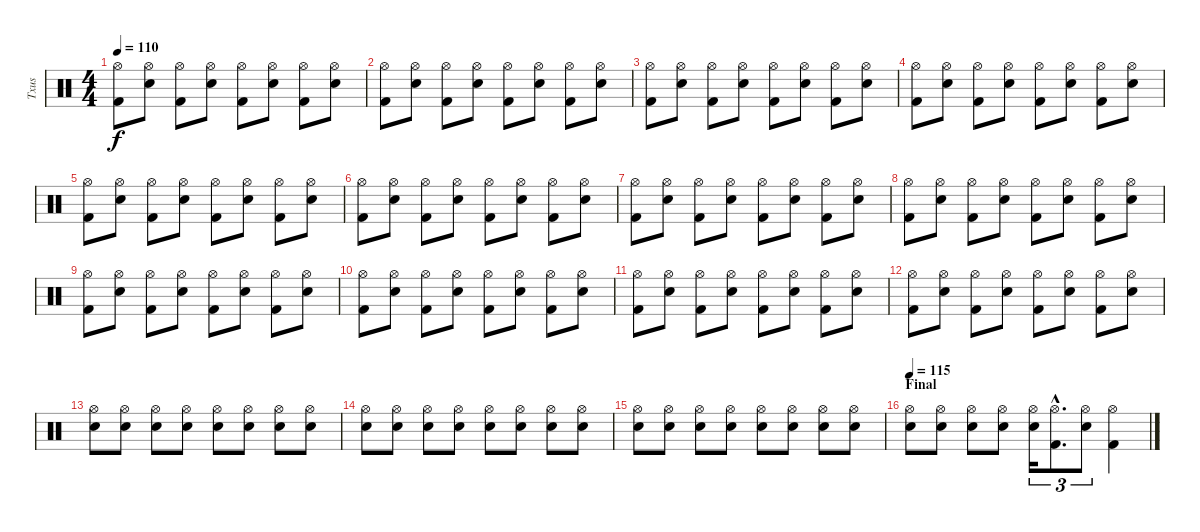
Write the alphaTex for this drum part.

\track ("Txus" "Txus") {instrument percussion}
\staff {score}
\articulation defaults
\ts (4 4)
\tempo 110
\clef neutral
\ks c
("Hi-Hat (open)" "Kick (hit) 2").8{dy f} ("Hi-Hat (open)" "Snare (hit) 2").8 ("Hi-Hat (open)" "Kick (hit) 2").8 ("Hi-Hat (open)" "Snare (hit) 2").8 ("Hi-Hat (open)" "Kick (hit) 2").8 ("Hi-Hat (open)" "Snare (hit) 2").8 ("Hi-Hat (open)" "Kick (hit) 2").8 ("Hi-Hat (open)" "Snare (hit) 2").8 |
("Hi-Hat (open)" "Kick (hit) 2").8 ("Hi-Hat (open)" "Snare (hit) 2").8 ("Hi-Hat (open)" "Kick (hit) 2").8 ("Hi-Hat (open)" "Snare (hit) 2").8 ("Hi-Hat (open)" "Kick (hit) 2").8 ("Hi-Hat (open)" "Snare (hit) 2").8 ("Hi-Hat (open)" "Kick (hit) 2").8 ("Hi-Hat (open)" "Snare (hit) 2").8 |
("Hi-Hat (open)" "Kick (hit) 2").8 ("Hi-Hat (open)" "Snare (hit) 2").8 ("Hi-Hat (open)" "Kick (hit) 2").8 ("Hi-Hat (open)" "Snare (hit) 2").8 ("Hi-Hat (open)" "Kick (hit) 2").8 ("Hi-Hat (open)" "Snare (hit) 2").8 ("Hi-Hat (open)" "Kick (hit) 2").8 ("Hi-Hat (open)" "Snare (hit) 2").8 |
("Hi-Hat (open)" "Kick (hit) 2").8 ("Hi-Hat (open)" "Snare (hit) 2").8 ("Hi-Hat (open)" "Kick (hit) 2").8 ("Hi-Hat (open)" "Snare (hit) 2").8 ("Hi-Hat (open)" "Kick (hit) 2").8 ("Hi-Hat (open)" "Snare (hit) 2").8 ("Hi-Hat (open)" "Kick (hit) 2").8 ("Hi-Hat (open)" "Snare (hit) 2").8 |
("Hi-Hat (open)" "Kick (hit) 2").8 ("Hi-Hat (open)" "Snare (hit) 2").8 ("Hi-Hat (open)" "Kick (hit) 2").8 ("Hi-Hat (open)" "Snare (hit) 2").8 ("Hi-Hat (open)" "Kick (hit) 2").8 ("Hi-Hat (open)" "Snare (hit) 2").8 ("Hi-Hat (open)" "Kick (hit) 2").8 ("Hi-Hat (open)" "Snare (hit) 2").8 |
("Hi-Hat (open)" "Kick (hit) 2").8 ("Hi-Hat (open)" "Snare (hit) 2").8 ("Hi-Hat (open)" "Kick (hit) 2").8 ("Hi-Hat (open)" "Snare (hit) 2").8 ("Hi-Hat (open)" "Kick (hit) 2").8 ("Hi-Hat (open)" "Snare (hit) 2").8 ("Hi-Hat (open)" "Kick (hit) 2").8 ("Hi-Hat (open)" "Snare (hit) 2").8 |
("Hi-Hat (open)" "Kick (hit) 2").8 ("Hi-Hat (open)" "Snare (hit) 2").8 ("Hi-Hat (open)" "Kick (hit) 2").8 ("Hi-Hat (open)" "Snare (hit) 2").8 ("Hi-Hat (open)" "Kick (hit) 2").8 ("Hi-Hat (open)" "Snare (hit) 2").8 ("Hi-Hat (open)" "Kick (hit) 2").8 ("Hi-Hat (open)" "Snare (hit) 2").8 |
("Hi-Hat (open)" "Kick (hit) 2").8 ("Hi-Hat (open)" "Snare (hit) 2").8 ("Hi-Hat (open)" "Kick (hit) 2").8 ("Hi-Hat (open)" "Snare (hit) 2").8 ("Hi-Hat (open)" "Kick (hit) 2").8 ("Hi-Hat (open)" "Snare (hit) 2").8 ("Hi-Hat (open)" "Kick (hit) 2").8 ("Hi-Hat (open)" "Snare (hit) 2").8 |
("Hi-Hat (open)" "Kick (hit) 2").8 ("Hi-Hat (open)" "Snare (hit) 2").8 ("Hi-Hat (open)" "Kick (hit) 2").8 ("Hi-Hat (open)" "Snare (hit) 2").8 ("Hi-Hat (open)" "Kick (hit) 2").8 ("Hi-Hat (open)" "Snare (hit) 2").8 ("Hi-Hat (open)" "Kick (hit) 2").8 ("Hi-Hat (open)" "Snare (hit) 2").8 |
("Hi-Hat (open)" "Kick (hit) 2").8 ("Hi-Hat (open)" "Snare (hit) 2").8 ("Hi-Hat (open)" "Kick (hit) 2").8 ("Hi-Hat (open)" "Snare (hit) 2").8 ("Hi-Hat (open)" "Kick (hit) 2").8 ("Hi-Hat (open)" "Snare (hit) 2").8 ("Hi-Hat (open)" "Kick (hit) 2").8 ("Hi-Hat (open)" "Snare (hit) 2").8 |
("Hi-Hat (open)" "Kick (hit) 2").8 ("Hi-Hat (open)" "Snare (hit) 2").8 ("Hi-Hat (open)" "Kick (hit) 2").8 ("Hi-Hat (open)" "Snare (hit) 2").8 ("Hi-Hat (open)" "Kick (hit) 2").8 ("Hi-Hat (open)" "Snare (hit) 2").8 ("Hi-Hat (open)" "Kick (hit) 2").8 ("Hi-Hat (open)" "Snare (hit) 2").8 |
("Hi-Hat (open)" "Kick (hit) 2").8 ("Hi-Hat (open)" "Snare (hit) 2").8 ("Hi-Hat (open)" "Kick (hit) 2").8 ("Hi-Hat (open)" "Snare (hit) 2").8 ("Hi-Hat (open)" "Kick (hit) 2").8 ("Hi-Hat (open)" "Snare (hit) 2").8 ("Hi-Hat (open)" "Kick (hit) 2").8 ("Hi-Hat (open)" "Snare (hit) 2").8 |
("Hi-Hat (open)" "Snare (hit) 2").8 ("Hi-Hat (open)" "Snare (hit) 2").8 ("Hi-Hat (open)" "Snare (hit) 2").8 ("Hi-Hat (open)" "Snare (hit) 2").8 ("Hi-Hat (open)" "Snare (hit) 2").8 ("Hi-Hat (open)" "Snare (hit) 2").8 ("Hi-Hat (open)" "Snare (hit) 2").8 ("Hi-Hat (open)" "Snare (hit) 2").8 |
("Hi-Hat (open)" "Snare (hit) 2").8 ("Hi-Hat (open)" "Snare (hit) 2").8 ("Hi-Hat (open)" "Snare (hit) 2").8 ("Hi-Hat (open)" "Snare (hit) 2").8 ("Hi-Hat (open)" "Snare (hit) 2").8 ("Hi-Hat (open)" "Snare (hit) 2").8 ("Hi-Hat (open)" "Snare (hit) 2").8 ("Hi-Hat (open)" "Snare (hit) 2").8 |
("Hi-Hat (open)" "Snare (hit) 2").8 ("Hi-Hat (open)" "Snare (hit) 2").8 ("Hi-Hat (open)" "Snare (hit) 2").8 ("Hi-Hat (open)" "Snare (hit) 2").8 ("Hi-Hat (open)" "Snare (hit) 2").8 ("Hi-Hat (open)" "Snare (hit) 2").8 ("Hi-Hat (open)" "Snare (hit) 2").8 ("Hi-Hat (open)" "Snare (hit) 2").8 |
\section ("" "Final")
\tempo 115
("Hi-Hat (open)" "Snare (hit) 2").8 ("Hi-Hat (open)" "Snare (hit) 2").8 ("Hi-Hat (open)" "Snare (hit) 2").8 ("Hi-Hat (open)" "Snare (hit) 2").8 ("Hi-Hat (open)" "Snare (hit) 2").16{tu (3 2)} ("Hi-Hat (open)"{hac} "Kick (hit) 2"{hac}).8{d tu (3 2)} ("Hi-Hat (open)" "Snare (hit) 2").8{tu (3 2)} ("Hi-Hat (open)" "Kick (hit) 2").4
